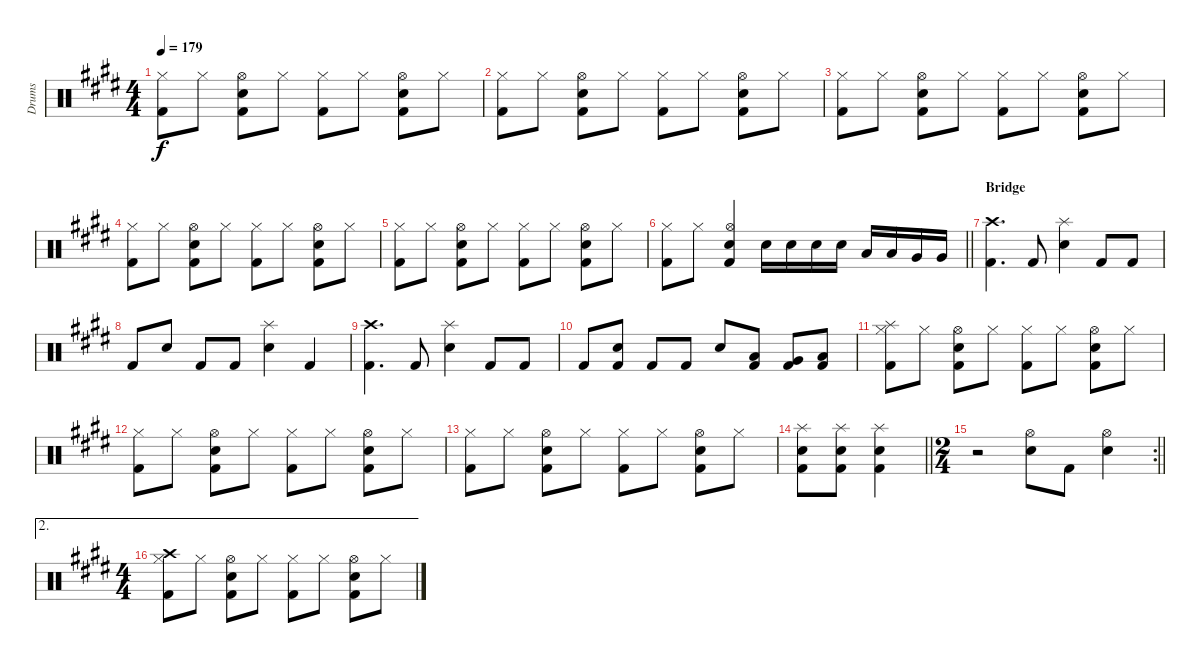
\track ("Drums" "Drums") {instrument percussion}
\staff {score}
\articulation defaults
\ts (4 4)
\tempo 179
\clef neutral
\ks e
("Hi-Hat (closed)" "Kick (hit) 2").8{dy f} "Hi-Hat (closed)".8 ("Hi-Hat (open)" "Snare (hit) 2" "Kick (hit) 2").8 "Hi-Hat (closed)".8 ("Hi-Hat (closed)" "Kick (hit) 2").8 "Hi-Hat (closed)".8 ("Hi-Hat (open)" "Snare (hit) 2" "Kick (hit) 2").8 "Hi-Hat (closed)".8 |
("Hi-Hat (closed)" "Kick (hit) 2").8 "Hi-Hat (closed)".8 ("Hi-Hat (open)" "Snare (hit) 2" "Kick (hit) 2").8 "Hi-Hat (closed)".8 ("Hi-Hat (closed)" "Kick (hit) 2").8 "Hi-Hat (closed)".8 ("Hi-Hat (open)" "Snare (hit) 2" "Kick (hit) 2").8 "Hi-Hat (closed)".8 |
("Hi-Hat (closed)" "Kick (hit) 2").8 "Hi-Hat (closed)".8 ("Hi-Hat (open)" "Snare (hit) 2" "Kick (hit) 2").8 "Hi-Hat (closed)".8 ("Hi-Hat (closed)" "Kick (hit) 2").8 "Hi-Hat (closed)".8 ("Hi-Hat (open)" "Snare (hit) 2" "Kick (hit) 2").8 "Hi-Hat (closed)".8 |
("Hi-Hat (closed)" "Kick (hit) 2").8 "Hi-Hat (closed)".8 ("Hi-Hat (open)" "Snare (hit) 2" "Kick (hit) 2").8 "Hi-Hat (closed)".8 ("Hi-Hat (closed)" "Kick (hit) 2").8 "Hi-Hat (closed)".8 ("Hi-Hat (open)" "Snare (hit) 2" "Kick (hit) 2").8 "Hi-Hat (closed)".8 |
("Hi-Hat (closed)" "Kick (hit) 2").8 "Hi-Hat (closed)".8 ("Hi-Hat (open)" "Snare (hit) 2" "Kick (hit) 2").8 "Hi-Hat (closed)".8 ("Hi-Hat (closed)" "Kick (hit) 2").8 "Hi-Hat (closed)".8 ("Hi-Hat (open)" "Snare (hit) 2" "Kick (hit) 2").8 "Hi-Hat (closed)".8 |
\barLineRight lightlight
("Hi-Hat (closed)" "Kick (hit) 2").8 "Hi-Hat (closed)".8 ("Hi-Hat (open)" "Snare (hit) 2" "Kick (hit) 2").4 "Snare (hit) 2".16 "Snare (hit) 2".16 "Snare (hit) 2".16 "Snare (hit) 2".16 "Low Tom (hit)".16 "Low Tom (hit)".16 "Very Low Tom (hit)".16 "Very Low Tom (hit)".16 |
\section ("" "Bridge")
("Crash high (hit)" "Kick (hit) 2").4{d} "Kick (hit) 2".8 ("Splash (hit)" "Snare (hit) 2").4 "Kick (hit) 2".8 "Kick (hit) 2".8 |
"Kick (hit) 2".8 "Snare (hit) 2".8 "Kick (hit) 2".8 "Kick (hit) 2".8 ("Splash (hit)" "Snare (hit) 2").4 "Kick (hit) 2".4 |
("Crash high (hit)" "Kick (hit) 2").4{d} "Kick (hit) 2".8 ("Splash (hit)" "Snare (hit) 2").4 "Kick (hit) 2".8 "Kick (hit) 2".8 |
"Kick (hit) 2".8 ("Snare (hit) 2" "Kick (hit) 2").8 "Kick (hit) 2".8 "Kick (hit) 2".8 "Snare (hit) 2".8 ("Low Tom (hit)" "Kick (hit) 2").8 ("Very Low Tom (hit)" "Kick (hit) 2").8 ("Low Floor Tom (hit)" "Kick (hit) 2").8 |
("Hi-Hat (closed)" "Splash (hit)" "Kick (hit) 2").8 "Hi-Hat (closed)".8 ("Hi-Hat (open)" "Snare (hit) 2" "Kick (hit) 2").8 "Hi-Hat (closed)".8 ("Hi-Hat (closed)" "Kick (hit) 2").8 "Hi-Hat (closed)".8 ("Hi-Hat (open)" "Snare (hit) 2" "Kick (hit) 2").8 "Hi-Hat (closed)".8 |
("Hi-Hat (closed)" "Kick (hit) 2").8 "Hi-Hat (closed)".8 ("Hi-Hat (open)" "Snare (hit) 2" "Kick (hit) 2").8 "Hi-Hat (closed)".8 ("Hi-Hat (closed)" "Kick (hit) 2").8 "Hi-Hat (closed)".8 ("Hi-Hat (open)" "Snare (hit) 2" "Kick (hit) 2").8 "Hi-Hat (closed)".8 |
("Hi-Hat (closed)" "Kick (hit) 2").8 "Hi-Hat (closed)".8 ("Hi-Hat (open)" "Snare (hit) 2" "Kick (hit) 2").8 "Hi-Hat (closed)".8 ("Hi-Hat (closed)" "Kick (hit) 2").8 "Hi-Hat (closed)".8 ("Hi-Hat (open)" "Snare (hit) 2" "Kick (hit) 2").8 "Hi-Hat (closed)".8 |
\barLineRight lightlight
("Splash (hit)" "Snare (hit) 2" "Kick (hit) 2").8 ("Splash (hit)" "Snare (hit) 2" "Kick (hit) 2").8 ("Splash (hit)" "Snare (hit) 2" "Kick (hit) 2").4 |
\rc 2
\ts (2 4)
\barLineRight lightlight
r.2 ("Hi-Hat (open)" "Snare (hit) 2").8 "Kick (hit) 2".8 ("Hi-Hat (open)" "Snare (hit) 2").4 |
\ae 2
\ts (4 4)
("Hi-Hat (closed)" "Crash high (hit)" "Kick (hit) 2").8 "Hi-Hat (closed)".8 ("Hi-Hat (open)" "Snare (hit) 2" "Kick (hit) 2").8 "Hi-Hat (closed)".8 ("Hi-Hat (closed)" "Kick (hit) 2").8 "Hi-Hat (closed)".8 ("Hi-Hat (open)" "Snare (hit) 2" "Kick (hit) 2").8 "Hi-Hat (closed)".8
